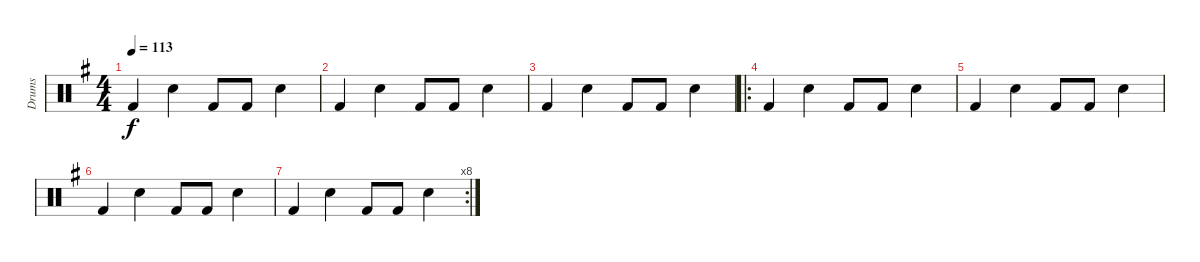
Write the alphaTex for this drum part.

\track ("Drums" "Drums") {instrument percussion}
\staff {score}
\articulation defaults
\ts (4 4)
\tempo 113
\clef neutral
\ks g "Kick (hit) 2".4{dy f} "Electric Snare (hit)".4 "Kick (hit) 2".8 "Kick (hit) 2".8 "Electric Snare (hit)".4
|
"Kick (hit) 2".4 "Electric Snare (hit)".4 "Kick (hit) 2".8 "Kick (hit) 2".8 "Electric Snare (hit)".4 |
"Kick (hit) 2".4 "Electric Snare (hit)".4 "Kick (hit) 2".8 "Kick (hit) 2".8 "Electric Snare (hit)".4 |
\ro "Kick (hit) 2".4 "Electric Snare (hit)".4 "Kick (hit) 2".8 "Kick (hit) 2".8 "Electric Snare (hit)".4
|
"Kick (hit) 2".4 "Electric Snare (hit)".4 "Kick (hit) 2".8 "Kick (hit) 2".8 "Electric Snare (hit)".4 |
"Kick (hit) 2".4 "Electric Snare (hit)".4 "Kick (hit) 2".8 "Kick (hit) 2".8 "Electric Snare (hit)".4 |
\rc 8 "Kick (hit) 2".4 "Electric Snare (hit)".4 "Kick (hit) 2".8 "Kick (hit) 2".8 "Electric Snare (hit)".4
